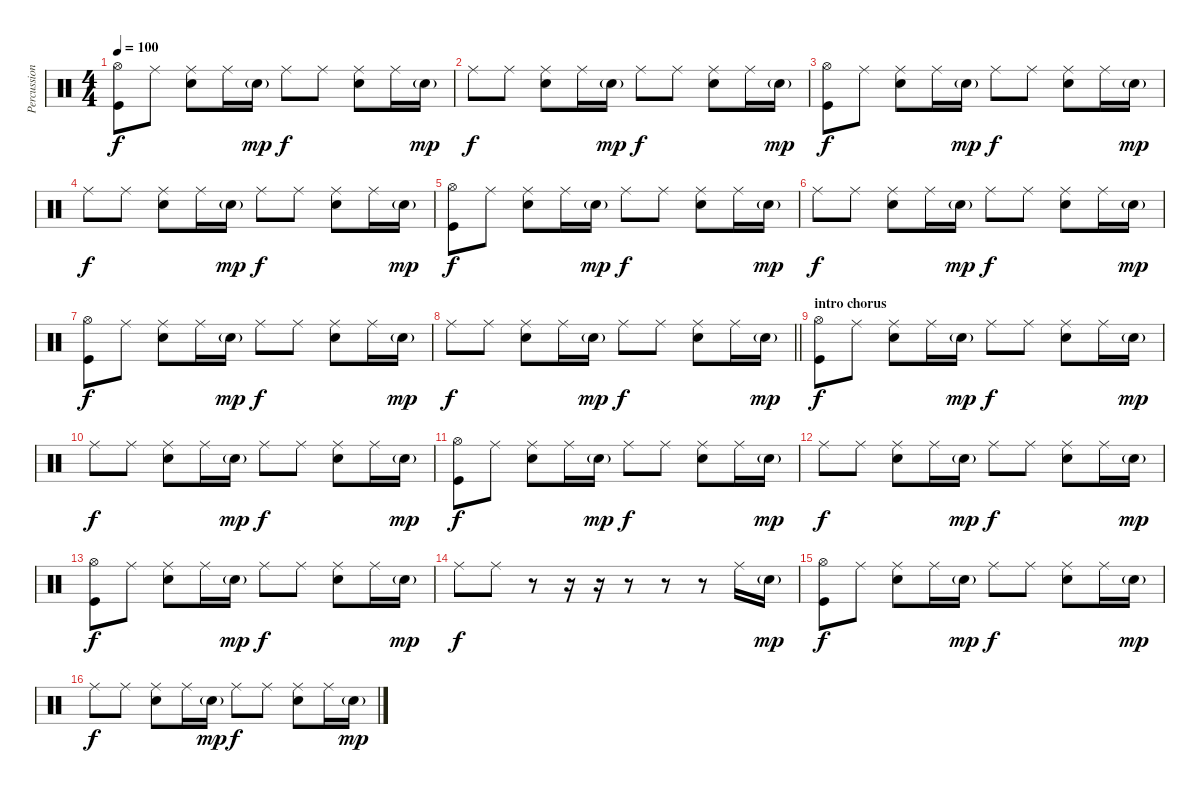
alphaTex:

\track ("Percussion" "Percussion") {instrument percussion}
\staff {score}
\articulation defaults
\ts (4 4)
\tempo 100
\clef neutral
\ks c
("Hi-Hat (open)" "Kick (hit)").8{dy f} "Ride (middle)".8 ("Ride (middle)" "Electric Snare (hit)").8 "Ride (middle)".16 "Electric Snare (hit)"{g}.16{dy mp} "Ride (middle)".8{dy f} "Ride (middle)".8 ("Ride (middle)" "Electric Snare (hit)").8 "Ride (middle)".16 "Electric Snare (hit)"{g}.16{dy mp} |
"Ride (middle)".8{dy f} "Ride (middle)".8 ("Ride (middle)" "Electric Snare (hit)").8 "Ride (middle)".16 "Electric Snare (hit)"{g}.16{dy mp} "Ride (middle)".8{dy f} "Ride (middle)".8 ("Ride (middle)" "Electric Snare (hit)").8 "Ride (middle)".16 "Electric Snare (hit)"{g}.16{dy mp} |
("Hi-Hat (open)" "Kick (hit)").8{dy f} "Ride (middle)".8 ("Ride (middle)" "Electric Snare (hit)").8 "Ride (middle)".16 "Electric Snare (hit)"{g}.16{dy mp} "Ride (middle)".8{dy f} "Ride (middle)".8 ("Ride (middle)" "Electric Snare (hit)").8 "Ride (middle)".16 "Electric Snare (hit)"{g}.16{dy mp} |
"Ride (middle)".8{dy f} "Ride (middle)".8 ("Ride (middle)" "Electric Snare (hit)").8 "Ride (middle)".16 "Electric Snare (hit)"{g}.16{dy mp} "Ride (middle)".8{dy f} "Ride (middle)".8 ("Ride (middle)" "Electric Snare (hit)").8 "Ride (middle)".16 "Electric Snare (hit)"{g}.16{dy mp} |
("Hi-Hat (open)" "Kick (hit)").8{dy f} "Ride (middle)".8 ("Ride (middle)" "Electric Snare (hit)").8 "Ride (middle)".16 "Electric Snare (hit)"{g}.16{dy mp} "Ride (middle)".8{dy f} "Ride (middle)".8 ("Ride (middle)" "Electric Snare (hit)").8 "Ride (middle)".16 "Electric Snare (hit)"{g}.16{dy mp} |
"Ride (middle)".8{dy f} "Ride (middle)".8 ("Ride (middle)" "Electric Snare (hit)").8 "Ride (middle)".16 "Electric Snare (hit)"{g}.16{dy mp} "Ride (middle)".8{dy f} "Ride (middle)".8 ("Ride (middle)" "Electric Snare (hit)").8 "Ride (middle)".16 "Electric Snare (hit)"{g}.16{dy mp} |
("Hi-Hat (open)" "Kick (hit)").8{dy f} "Ride (middle)".8 ("Ride (middle)" "Electric Snare (hit)").8 "Ride (middle)".16 "Electric Snare (hit)"{g}.16{dy mp} "Ride (middle)".8{dy f} "Ride (middle)".8 ("Ride (middle)" "Electric Snare (hit)").8 "Ride (middle)".16 "Electric Snare (hit)"{g}.16{dy mp} |
\barLineRight lightlight "Ride (middle)".8{dy f} "Ride (middle)".8
("Ride (middle)" "Electric Snare (hit)").8 "Ride (middle)".16 "Electric Snare (hit)"{g}.16{dy mp} "Ride (middle)".8{dy f} "Ride (middle)".8 ("Ride (middle)" "Electric Snare (hit)").8 "Ride (middle)".16 "Electric Snare (hit)"{g}.16{dy mp} |
\section ("" "intro chorus")
("Hi-Hat (open)" "Kick (hit)").8{dy f} "Ride (middle)".8 ("Ride (middle)" "Electric Snare (hit)").8 "Ride (middle)".16 "Electric Snare (hit)"{g}.16{dy mp} "Ride (middle)".8{dy f} "Ride (middle)".8 ("Ride (middle)" "Electric Snare (hit)").8 "Ride (middle)".16 "Electric Snare (hit)"{g}.16{dy mp} |
"Ride (middle)".8{dy f} "Ride (middle)".8 ("Ride (middle)" "Electric Snare (hit)").8 "Ride (middle)".16 "Electric Snare (hit)"{g}.16{dy mp} "Ride (middle)".8{dy f} "Ride (middle)".8 ("Ride (middle)" "Electric Snare (hit)").8 "Ride (middle)".16 "Electric Snare (hit)"{g}.16{dy mp} |
("Hi-Hat (open)" "Kick (hit)").8{dy f} "Ride (middle)".8 ("Ride (middle)" "Electric Snare (hit)").8 "Ride (middle)".16 "Electric Snare (hit)"{g}.16{dy mp} "Ride (middle)".8{dy f} "Ride (middle)".8 ("Ride (middle)" "Electric Snare (hit)").8 "Ride (middle)".16 "Electric Snare (hit)"{g}.16{dy mp} |
"Ride (middle)".8{dy f} "Ride (middle)".8 ("Ride (middle)" "Electric Snare (hit)").8 "Ride (middle)".16 "Electric Snare (hit)"{g}.16{dy mp} "Ride (middle)".8{dy f} "Ride (middle)".8 ("Ride (middle)" "Electric Snare (hit)").8 "Ride (middle)".16 "Electric Snare (hit)"{g}.16{dy mp} |
("Hi-Hat (open)" "Kick (hit)").8{dy f} "Ride (middle)".8 ("Ride (middle)" "Electric Snare (hit)").8 "Ride (middle)".16 "Electric Snare (hit)"{g}.16{dy mp} "Ride (middle)".8{dy f} "Ride (middle)".8 ("Ride (middle)" "Electric Snare (hit)").8 "Ride (middle)".16 "Electric Snare (hit)"{g}.16{dy mp} |
"Ride (middle)".8{dy f} "Ride (middle)".8 r.8 r.16 r.16 r.8 r.8 r.8 "Ride (middle)".16 "Electric Snare (hit)"{g}.16{dy mp} |
("Hi-Hat (open)" "Kick (hit)").8{dy f} "Ride (middle)".8 ("Ride (middle)" "Electric Snare (hit)").8 "Ride (middle)".16 "Electric Snare (hit)"{g}.16{dy mp} "Ride (middle)".8{dy f} "Ride (middle)".8 ("Ride (middle)" "Electric Snare (hit)").8 "Ride (middle)".16 "Electric Snare (hit)"{g}.16{dy mp} |
"Ride (middle)".8{dy f} "Ride (middle)".8 ("Ride (middle)" "Electric Snare (hit)").8 "Ride (middle)".16 "Electric Snare (hit)"{g}.16{dy mp} "Ride (middle)".8{dy f} "Ride (middle)".8 ("Ride (middle)" "Electric Snare (hit)").8 "Ride (middle)".16 "Electric Snare (hit)"{g}.16{dy mp}
